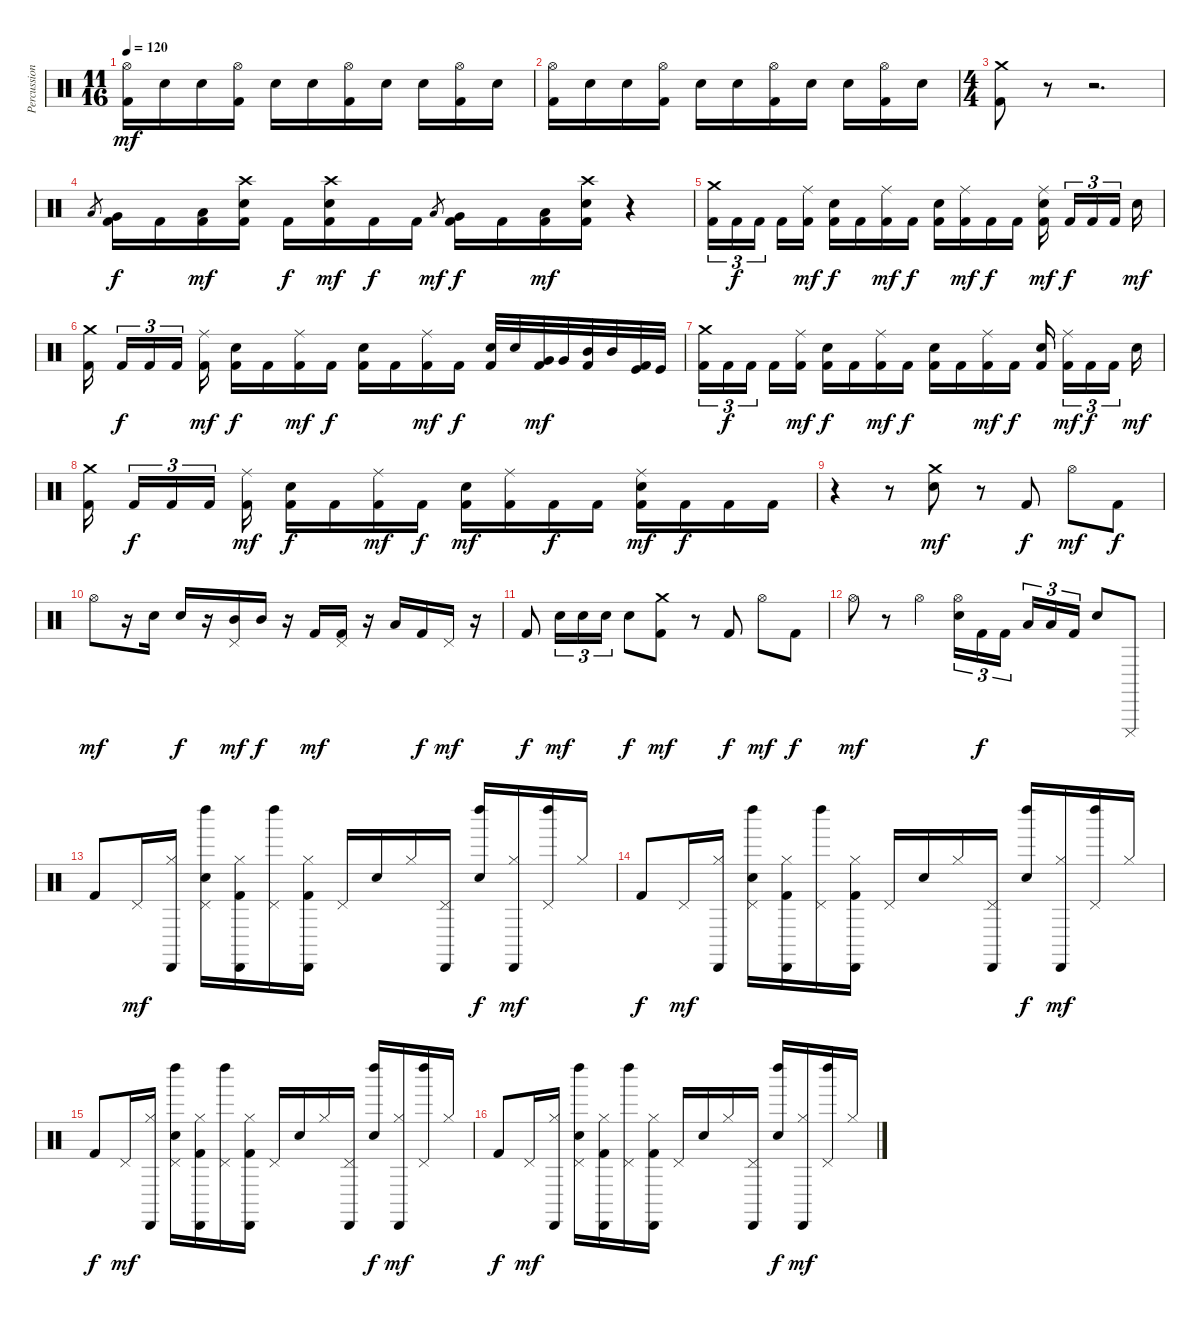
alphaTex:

\track ("Percussion" "Percussion") {instrument percussion}
\staff {score}
\articulation defaults
\ts (11 16)
\tempo 120
\clef neutral
\ks c
("Hi-Hat (open)" "Kick (hit) 2").16{dy mf} "Electric Snare (hit)".16 "Electric Snare (hit)".16 ("Hi-Hat (open)" "Kick (hit) 2").16 "Electric Snare (hit)".16 "Electric Snare (hit)".16 ("Hi-Hat (open)" "Kick (hit) 2").16 "Electric Snare (hit)".16 "Electric Snare (hit)".16 ("Hi-Hat (open)" "Kick (hit) 2").16 "Electric Snare (hit)".16 |
("Hi-Hat (open)" "Kick (hit) 2").16 "Electric Snare (hit)".16 "Electric Snare (hit)".16 ("Hi-Hat (open)" "Kick (hit) 2").16 "Electric Snare (hit)".16 "Electric Snare (hit)".16 ("Hi-Hat (open)" "Kick (hit) 2").16 "Electric Snare (hit)".16 "Electric Snare (hit)".16 ("Hi-Hat (open)" "Kick (hit) 2").16 "Electric Snare (hit)".16 |
\ts (4 4)
("Crash medium (hit)" "Kick (hit) 2").8 r.8 r.2{d} |
"Low Floor Tom (hit)".8{gr} ("Very Low Tom (hit)" "Kick (hit) 2").16{dy f} "Kick (hit) 2".16 ("Low Floor Tom (hit)" "Kick (hit) 2").16{dy mf} ("Crash high (hit)" "Electric Snare (hit)" "Kick (hit) 2").16 "Kick (hit) 2".16{dy f} ("Crash high (hit)" "Electric Snare (hit)" "Kick (hit) 2").16{dy mf} "Kick (hit) 2".16{dy f} "Kick (hit) 2".16 "Low Floor Tom (hit)".8{gr dy mf} ("Very Low Tom (hit)" "Kick (hit) 2").16{dy f} "Kick (hit) 2".16 ("Low Floor Tom (hit)" "Kick (hit) 2").16{dy mf} ("Crash high (hit)" "Electric Snare (hit)" "Kick (hit) 2").16 r.4 |
("Crash medium (hit)" "Kick (hit) 2").16{tu (3 2)} "Kick (hit) 2".16{tu (3 2) dy f} "Kick (hit) 2".16{tu (3 2) beam splitsecondary} "Kick (hit) 2".16 ("Ride (middle)" "Kick (hit) 2").16{dy mf} ("Electric Snare (hit)" "Kick (hit) 2").16{dy f} "Kick (hit) 2".16 ("Ride (middle)" "Kick (hit) 2").16{dy mf} "Kick (hit) 2".16{dy f} ("Electric Snare (hit)" "Kick (hit) 2").16 ("Ride (middle)" "Kick (hit) 2").16{dy mf} "Kick (hit) 2".16{dy f} "Kick (hit) 2".16 ("Ride (middle)" "Electric Snare (hit)" "Kick (hit) 2").16{dy mf beam splitsecondary} "Kick (hit) 2".16{tu (3 2) dy f} "Kick (hit) 2".16{tu (3 2)} "Kick (hit) 2".16{tu (3 2) beam splitsecondary} "Electric Snare (hit)".16{dy mf} |
("Crash medium (hit)" "Kick (hit) 2").16{beam splitsecondary} "Kick (hit) 2".16{tu (3 2) dy f} "Kick (hit) 2".16{tu (3 2)} "Kick (hit) 2".16{tu (3 2) beam splitsecondary} ("Ride (middle)" "Kick (hit) 2").16{dy mf} ("Electric Snare (hit)" "Kick (hit) 2").16{dy f} "Kick (hit) 2".16 ("Ride (middle)" "Kick (hit) 2").16{dy mf} "Kick (hit) 2".16{dy f} ("Electric Snare (hit)" "Kick (hit) 2").16 "Kick (hit) 2".16 ("Ride (middle)" "Kick (hit) 2").16{dy mf} "Kick (hit) 2".16{dy f} ("Electric Snare (hit)" "Kick (hit) 2").32 "Electric Snare (hit)".32 ("Very Low Tom (hit)" "Kick (hit) 2").32{dy mf} "Very Low Tom (hit)".32 ("Mid Tom (hit)" "Kick (hit) 2").32 "Mid Tom (hit)".32 ("Kick (hit)" "Kick (hit) 2").32 "Kick (hit)".32 |
("Crash medium (hit)" "Kick (hit) 2").16{tu (3 2)} "Kick (hit) 2".16{tu (3 2) dy f} "Kick (hit) 2".16{tu (3 2) beam splitsecondary} "Kick (hit) 2".16 ("Ride (middle)" "Kick (hit) 2").16{dy mf} ("Electric Snare (hit)" "Kick (hit) 2").16{dy f} "Kick (hit) 2".16 ("Ride (middle)" "Kick (hit) 2").16{dy mf} "Kick (hit) 2".16{dy f} ("Electric Snare (hit)" "Kick (hit) 2").16 "Kick (hit) 2".16 ("Ride (middle)" "Kick (hit) 2").16{dy mf} "Kick (hit) 2".16{dy f} ("Electric Snare (hit)" "Kick (hit) 2").16{beam splitsecondary} ("Ride (middle)" "Kick (hit) 2").16{tu (3 2) dy mf} "Kick (hit) 2".16{tu (3 2) dy f} "Kick (hit) 2".16{tu (3 2) beam splitsecondary} "Electric Snare (hit)".16{dy mf} |
("Crash medium (hit)" "Kick (hit) 2").16{beam splitsecondary} "Kick (hit) 2".16{tu (3 2) dy f} "Kick (hit) 2".16{tu (3 2)} "Kick (hit) 2".16{tu (3 2) beam splitsecondary} ("Ride (middle)" "Kick (hit) 2").16{dy mf} ("Electric Snare (hit)" "Kick (hit) 2").16{dy f} "Kick (hit) 2".16 ("Ride (middle)" "Kick (hit) 2").16{dy mf} "Kick (hit) 2".16{dy f} ("Electric Snare (hit)" "Kick (hit) 2").16{dy mf} ("Ride (middle)" "Kick (hit) 2").16 "Kick (hit) 2".16{dy f} "Kick (hit) 2".16 ("Ride (middle)" "Electric Snare (hit)" "Kick (hit) 2").16{dy mf} "Kick (hit) 2".16{dy f} "Kick (hit) 2".16 "Kick (hit) 2".16 |
r.4 r.8 ("Crash medium (hit)" "Electric Snare (hit)").8{dy mf} r.8 "Kick (hit) 2".8{dy f} "Hi-Hat (open)".8{dy mf} "Kick (hit) 2".8{dy f} |
"Hi-Hat (open)".8{dy mf} r.16 "Electric Snare (hit)".16 "Electric Snare (hit)".16{dy f} r.16 ("Mid Tom (hit)" "Pedal Hi-Hat (hit)").16{dy mf} "Mid Tom (hit)".16{dy f} r.16 "Kick (hit) 2".16{dy mf} ("Kick (hit) 2" "Pedal Hi-Hat (hit)").16 r.16 "Low Tom (hit)".16 "Kick (hit) 2".16{dy f} "Pedal Hi-Hat (hit)".16{dy mf} r.16 |
"Kick (hit) 2".8{dy f} "Electric Snare (hit)".16{tu (3 2) dy mf} "Electric Snare (hit)".16{tu (3 2)} "Electric Snare (hit)".16{tu (3 2)} "Electric Snare (hit)".8{dy f} ("Crash medium (hit)" "Kick (hit) 2").8{dy mf} r.8 "Kick (hit) 2".8{dy f} "Hi-Hat (open)".8{dy mf} "Kick (hit) 2".8{dy f} |
"Hi-Hat (open)".8{dy mf} r.8 "Hi-Hat (open)".4 ("Hi-Hat (open)" "Electric Snare (hit)").16{tu (3 2)} "Kick (hit) 2".16{tu (3 2) dy f} "Kick (hit) 2".16{tu (3 2) beam splitsecondary} "Low Tom (hit)".16{tu (3 2)} "Low Tom (hit)".16{tu (3 2)} "Kick (hit) 2".16{tu (3 2)} "Electric Snare (hit)".8 "Cuica (mute)".8 |
"Kick (hit) 2".8 "Pedal Hi-Hat (hit)".16{dy mf} ("Cabasa (hit)" "Hi-Hat (closed)").16 ("Left Maraca (hit)" "Electric Snare (hit)" "Pedal Hi-Hat (hit)").16 ("Cabasa (hit)" "Hi-Hat (closed)" "Kick (hit) 2").16 ("Left Maraca (hit)" "Pedal Hi-Hat (hit)").16 ("Cabasa (hit)" "Hi-Hat (closed)" "Kick (hit) 2").16 "Pedal Hi-Hat (hit)".16 "Electric Snare (hit)".16 "Hi-Hat (closed)".16 ("Cabasa (hit)" "Pedal Hi-Hat (hit)").16 ("Left Maraca (hit)" "Electric Snare (hit)").16{dy f} ("Cabasa (hit)" "Hi-Hat (closed)").16{dy mf} ("Left Maraca (hit)" "Pedal Hi-Hat (hit)").16 "Hi-Hat (closed)".16 |
"Kick (hit) 2".8{dy f} "Pedal Hi-Hat (hit)".16{dy mf} ("Cabasa (hit)" "Hi-Hat (closed)").16 ("Left Maraca (hit)" "Electric Snare (hit)" "Pedal Hi-Hat (hit)").16 ("Cabasa (hit)" "Hi-Hat (closed)" "Kick (hit) 2").16 ("Left Maraca (hit)" "Pedal Hi-Hat (hit)").16 ("Cabasa (hit)" "Hi-Hat (closed)" "Kick (hit) 2").16 "Pedal Hi-Hat (hit)".16 "Electric Snare (hit)".16 "Hi-Hat (closed)".16 ("Cabasa (hit)" "Pedal Hi-Hat (hit)").16 ("Left Maraca (hit)" "Electric Snare (hit)").16{dy f} ("Cabasa (hit)" "Hi-Hat (closed)").16{dy mf} ("Left Maraca (hit)" "Pedal Hi-Hat (hit)").16 "Hi-Hat (closed)".16 |
"Kick (hit) 2".8{dy f} "Pedal Hi-Hat (hit)".16{dy mf} ("Cabasa (hit)" "Hi-Hat (closed)").16 ("Left Maraca (hit)" "Electric Snare (hit)" "Pedal Hi-Hat (hit)").16 ("Cabasa (hit)" "Hi-Hat (closed)" "Kick (hit) 2").16 ("Left Maraca (hit)" "Pedal Hi-Hat (hit)").16 ("Cabasa (hit)" "Hi-Hat (closed)" "Kick (hit) 2").16 "Pedal Hi-Hat (hit)".16 "Electric Snare (hit)".16 "Hi-Hat (closed)".16 ("Cabasa (hit)" "Pedal Hi-Hat (hit)").16 ("Left Maraca (hit)" "Electric Snare (hit)").16{dy f} ("Cabasa (hit)" "Hi-Hat (closed)").16{dy mf} ("Left Maraca (hit)" "Pedal Hi-Hat (hit)").16 "Hi-Hat (closed)".16 |
"Kick (hit) 2".8{dy f} "Pedal Hi-Hat (hit)".16{dy mf} ("Cabasa (hit)" "Hi-Hat (closed)").16 ("Left Maraca (hit)" "Electric Snare (hit)" "Pedal Hi-Hat (hit)").16 ("Cabasa (hit)" "Hi-Hat (closed)" "Kick (hit) 2").16 ("Left Maraca (hit)" "Pedal Hi-Hat (hit)").16 ("Cabasa (hit)" "Hi-Hat (closed)" "Kick (hit) 2").16 "Pedal Hi-Hat (hit)".16 "Electric Snare (hit)".16 "Hi-Hat (closed)".16 ("Cabasa (hit)" "Pedal Hi-Hat (hit)").16 ("Left Maraca (hit)" "Electric Snare (hit)").16{dy f} ("Cabasa (hit)" "Hi-Hat (closed)").16{dy mf} ("Left Maraca (hit)" "Pedal Hi-Hat (hit)").16 "Hi-Hat (closed)".16
